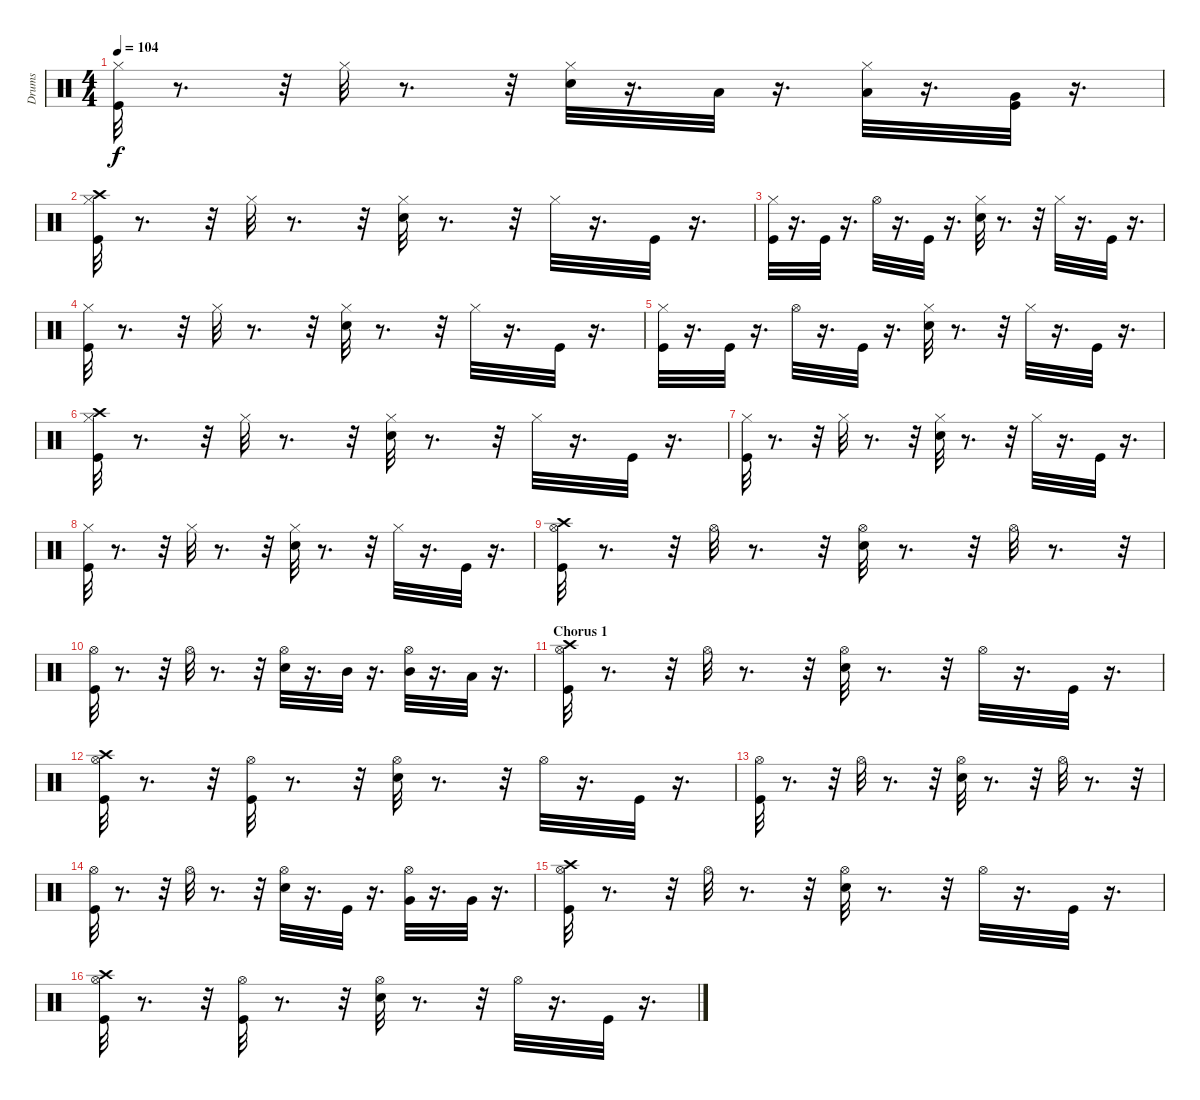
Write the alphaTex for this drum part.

\track ("Drums" "Drums") {instrument percussion}
\staff {score}
\articulation defaults
\ts (4 4)
\tempo 104
\clef neutral
\ks c
("Hi-Hat (closed)" "Kick (hit)").32{dy f} r.8{d} r.32 "Hi-Hat (closed)".32 r.8{d} r.32 ("Electric Snare (hit)" "Hi-Hat (closed)").32 r.16{d} "Low Tom (hit)".32 r.16{d} ("Low Tom (hit)" "Hi-Hat (closed)").32 r.16{d} ("Kick (hit)" "Very Low Tom (hit)").32 r.16{d} |
("Hi-Hat (closed)" "Crash high (hit)" "Kick (hit)").32 r.8{d} r.32 "Hi-Hat (closed)".32 r.8{d} r.32 ("Electric Snare (hit)" "Hi-Hat (closed)").32 r.8{d} r.32 "Hi-Hat (closed)".32 r.16{d} "Kick (hit)".32 r.16{d} |
("Hi-Hat (closed)" "Kick (hit)").32 r.16{d} "Kick (hit)".32 r.16{d} "Hi-Hat (open)".32 r.16{d} "Kick (hit)".32 r.16{d} ("Hi-Hat (closed)" "Electric Snare (hit)").32 r.8{d} r.32 "Hi-Hat (closed)".32 r.16{d} "Kick (hit)".32 r.16{d} |
("Hi-Hat (closed)" "Kick (hit)").32 r.8{d} r.32 "Hi-Hat (closed)".32 r.8{d} r.32 ("Electric Snare (hit)" "Hi-Hat (closed)").32 r.8{d} r.32 "Hi-Hat (closed)".32 r.16{d} "Kick (hit)".32 r.16{d} |
("Hi-Hat (closed)" "Kick (hit)").32 r.16{d} "Kick (hit)".32 r.16{d} "Hi-Hat (open)".32 r.16{d} "Kick (hit)".32 r.16{d} ("Hi-Hat (closed)" "Electric Snare (hit)").32 r.8{d} r.32 "Hi-Hat (closed)".32 r.16{d} "Kick (hit)".32 r.16{d} |
("Hi-Hat (closed)" "Crash high (hit)" "Kick (hit)").32 r.8{d} r.32 "Hi-Hat (closed)".32 r.8{d} r.32 ("Electric Snare (hit)" "Hi-Hat (closed)").32 r.8{d} r.32 "Hi-Hat (closed)".32 r.16{d} "Kick (hit)".32 r.16{d} |
("Hi-Hat (closed)" "Kick (hit)").32 r.8{d} r.32 "Hi-Hat (closed)".32 r.8{d} r.32 ("Electric Snare (hit)" "Hi-Hat (closed)").32 r.8{d} r.32 "Hi-Hat (closed)".32 r.16{d} "Kick (hit)".32 r.16{d} |
("Hi-Hat (closed)" "Kick (hit)").32 r.8{d} r.32 "Hi-Hat (closed)".32 r.8{d} r.32 ("Electric Snare (hit)" "Hi-Hat (closed)").32 r.8{d} r.32 "Hi-Hat (closed)".32 r.16{d} "Kick (hit)".32 r.16{d} |
("Hi-Hat (open)" "Crash high (hit)" "Kick (hit)").32 r.8{d} r.32 "Hi-Hat (open)".32 r.8{d} r.32 ("Hi-Hat (open)" "Electric Snare (hit)").32 r.8{d} r.32 "Hi-Hat (open)".32 r.8{d} r.32 |
("Hi-Hat (open)" "Kick (hit)").32 r.8{d} r.32 "Hi-Hat (open)".32 r.8{d} r.32 ("Hi-Hat (open)" "Electric Snare (hit)").32 r.16{d} "Mid Tom (hit)".32 r.16{d} ("Mid Tom (hit)" "Hi-Hat (open)").32 r.16{d} "Low Tom (hit)".32 r.16{d} |
\section ("" "Chorus 1")
("Crash high (hit)" "Hi-Hat (open)" "Kick (hit)").32 r.8{d} r.32 "Hi-Hat (open)".32 r.8{d} r.32 ("Hi-Hat (open)" "Electric Snare (hit)").32 r.8{d} r.32 "Hi-Hat (open)".32 r.16{d} "Kick (hit)".32 r.16{d} |
("Crash high (hit)" "Hi-Hat (open)" "Kick (hit)").32 r.8{d} r.32 ("Kick (hit)" "Hi-Hat (open)").32 r.8{d} r.32 ("Hi-Hat (open)" "Electric Snare (hit)").32 r.8{d} r.32 "Hi-Hat (open)".32 r.16{d} "Kick (hit)".32 r.16{d} |
("Hi-Hat (open)" "Kick (hit)").32 r.8{d} r.32 "Hi-Hat (open)".32 r.8{d} r.32 ("Electric Snare (hit)" "Hi-Hat (open)").32 r.8{d} r.32 "Hi-Hat (open)".32 r.8{d} r.32 |
("Hi-Hat (open)" "Kick (hit)").32 r.8{d} r.32 "Hi-Hat (open)".32 r.8{d} r.32 ("Hi-Hat (open)" "Electric Snare (hit)").32 r.16{d} "Kick (hit)".32 r.16{d} ("Very Low Tom (hit)" "Hi-Hat (open)").32 r.16{d} "Very Low Tom (hit)".32 r.16{d} |
("Crash high (hit)" "Hi-Hat (open)" "Kick (hit)").32 r.8{d} r.32 "Hi-Hat (open)".32 r.8{d} r.32 ("Hi-Hat (open)" "Electric Snare (hit)").32 r.8{d} r.32 "Hi-Hat (open)".32 r.16{d} "Kick (hit)".32 r.16{d} |
("Crash high (hit)" "Hi-Hat (open)" "Kick (hit)").32 r.8{d} r.32 ("Kick (hit)" "Hi-Hat (open)").32 r.8{d} r.32 ("Hi-Hat (open)" "Electric Snare (hit)").32 r.8{d} r.32 "Hi-Hat (open)".32 r.16{d} "Kick (hit)".32 r.16{d}
